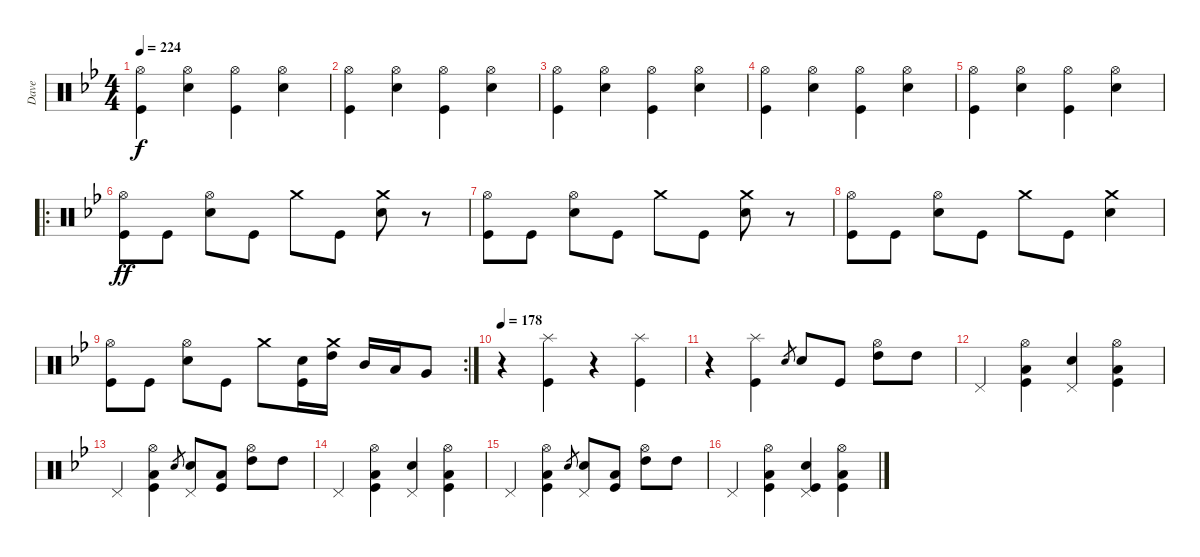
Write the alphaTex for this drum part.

\track ("Dave" "Dave") {instrument percussion}
\staff {score}
\articulation defaults
\ts (4 4)
\tempo 224
\clef neutral
\ks gminor
("Hi-Hat (open)" "Kick (hit)").4{dy f} ("Hi-Hat (open)" "Snare (hit) 2").4 ("Hi-Hat (open)" "Kick (hit)").4 ("Hi-Hat (open)" "Snare (hit) 2").4 |
("Hi-Hat (open)" "Kick (hit)").4 ("Hi-Hat (open)" "Snare (hit) 2").4 ("Hi-Hat (open)" "Kick (hit)").4 ("Hi-Hat (open)" "Snare (hit) 2").4 |
("Hi-Hat (open)" "Kick (hit)").4 ("Hi-Hat (open)" "Snare (hit) 2").4 ("Hi-Hat (open)" "Kick (hit)").4 ("Hi-Hat (open)" "Snare (hit) 2").4 |
("Hi-Hat (open)" "Kick (hit)").4 ("Hi-Hat (open)" "Snare (hit) 2").4 ("Hi-Hat (open)" "Kick (hit)").4 ("Hi-Hat (open)" "Snare (hit) 2").4 |
("Hi-Hat (open)" "Kick (hit)").4 ("Hi-Hat (open)" "Snare (hit) 2").4 ("Hi-Hat (open)" "Kick (hit)").4 ("Hi-Hat (open)" "Snare (hit) 2").4 |
\ro
("Hi-Hat (open)" "Kick (hit)").8{dy ff} "Kick (hit)".8 ("Hi-Hat (open)" "Snare (hit) 2").8 "Kick (hit)".8 "Crash medium (hit)".8 "Kick (hit)".8 ("Crash medium (hit)" "Snare (hit) 2").8 r.8 |
("Hi-Hat (open)" "Kick (hit)").8 "Kick (hit)".8 ("Hi-Hat (open)" "Snare (hit) 2").8 "Kick (hit)".8 "Crash medium (hit)".8 "Kick (hit)".8 ("Crash medium (hit)" "Snare (hit) 2").8 r.8 |
("Hi-Hat (open)" "Kick (hit)").8 "Kick (hit)".8 ("Hi-Hat (open)" "Snare (hit) 2").8 "Kick (hit)".8 "Crash medium (hit)".8 "Kick (hit)".8 ("Crash medium (hit)" "Snare (hit) 2").4 |
\rc 2
("Hi-Hat (open)" "Kick (hit)").8 "Kick (hit)".8 ("Hi-Hat (open)" "Snare (hit) 2").8 "Kick (hit)".8 "Crash medium (hit)".8 ("Snare (hit) 2" "Kick (hit)").16 ("High Tom (hit)" "Crash medium (hit)").16 "Mid Tom (hit)".16 "Low Tom (hit)".16 "Very Low Tom (hit)".8 |
\tempo 178
r.4 ("Splash (hit)" "Kick (hit)").4 r.4 ("Splash (hit)" "Kick (hit)").4 |
r.4 ("Splash (hit)" "Kick (hit)").4 "Snare (hit) 2".8{gr} "Snare (hit) 2".8 "Kick (hit)".8 ("High Tom (hit)" "Hi-Hat (open)").8 "High Tom (hit)".8 |
"Pedal Hi-Hat (hit)".4 ("Hi-Hat (open)" "Low Floor Tom (hit)" "Kick (hit)").4 ("Pedal Hi-Hat (hit)" "Snare (hit) 2").4 ("Hi-Hat (open)" "Low Floor Tom (hit)" "Kick (hit)").4 |
"Pedal Hi-Hat (hit)".4 ("Hi-Hat (open)" "Low Floor Tom (hit)" "Kick (hit)").4 "Snare (hit) 2".8{gr} ("Pedal Hi-Hat (hit)" "Snare (hit) 2").8 ("Low Floor Tom (hit)" "Kick (hit)").8 ("High Tom (hit)" "Hi-Hat (open)").8 "High Tom (hit)".8 |
"Pedal Hi-Hat (hit)".4 ("Hi-Hat (open)" "Low Floor Tom (hit)" "Kick (hit)").4 ("Pedal Hi-Hat (hit)" "Snare (hit) 2").4 ("Hi-Hat (open)" "Low Floor Tom (hit)" "Kick (hit)").4 |
"Pedal Hi-Hat (hit)".4 ("Hi-Hat (open)" "Low Floor Tom (hit)" "Kick (hit)").4 "Snare (hit) 2".8{gr} ("Pedal Hi-Hat (hit)" "Snare (hit) 2").8 ("Low Floor Tom (hit)" "Kick (hit)").8 ("High Tom (hit)" "Hi-Hat (open)").8 "High Tom (hit)".8 |
"Pedal Hi-Hat (hit)".4 ("Hi-Hat (open)" "Low Floor Tom (hit)" "Kick (hit)").4 ("Pedal Hi-Hat (hit)" "Snare (hit) 2" "Kick (hit)").4 ("Hi-Hat (open)" "Low Floor Tom (hit)" "Kick (hit)").4
